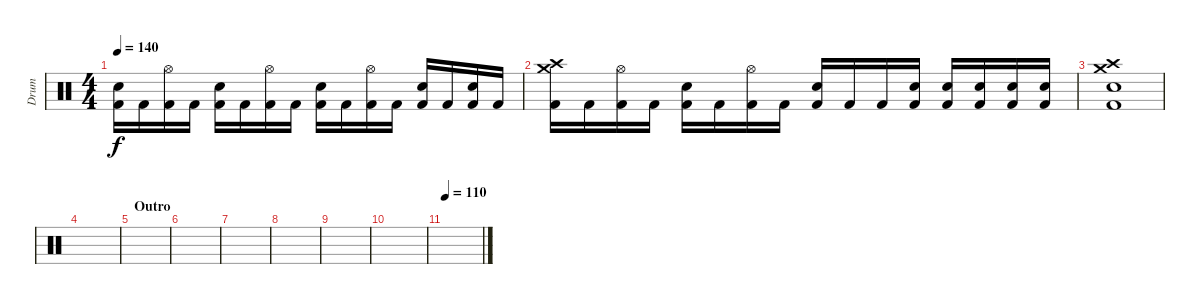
\track ("Drum" "Drum") {instrument percussion}
\staff {score}
\articulation defaults
\ts (4 4)
\tempo 140
\clef neutral
\ks c
("Electric Snare (hit)" "Kick (hit) 2").16{dy f} "Kick (hit) 2".16 ("Hi-Hat (open)" "Kick (hit) 2").16 "Kick (hit) 2".16 ("Electric Snare (hit)" "Kick (hit) 2").16 "Kick (hit) 2".16 ("Hi-Hat (open)" "Kick (hit) 2").16 "Kick (hit) 2".16 ("Electric Snare (hit)" "Kick (hit) 2").16 "Kick (hit) 2".16 ("Hi-Hat (open)" "Kick (hit) 2").16 "Kick (hit) 2".16 ("Electric Snare (hit)" "Kick (hit) 2").16 "Kick (hit) 2".16 ("Electric Snare (hit)" "Kick (hit) 2").16 "Kick (hit) 2".16 |
("Crash medium (hit)" "Crash high (hit)" "Kick (hit) 2").16 "Kick (hit) 2".16 ("Hi-Hat (open)" "Kick (hit) 2").16 "Kick (hit) 2".16 ("Electric Snare (hit)" "Kick (hit) 2").16 "Kick (hit) 2".16 ("Hi-Hat (open)" "Kick (hit) 2").16 "Kick (hit) 2".16 ("Electric Snare (hit)" "Kick (hit) 2").16 "Kick (hit) 2".16 "Kick (hit) 2".16 ("Electric Snare (hit)" "Kick (hit) 2").16 ("Electric Snare (hit)" "Kick (hit) 2").16 ("Electric Snare (hit)" "Kick (hit) 2").16 ("Electric Snare (hit)" "Kick (hit) 2").16 ("Electric Snare (hit)" "Kick (hit) 2").16 |
("Crash medium (hit)" "Crash high (hit)" "Electric Snare (hit)" "Kick (hit) 2").1 |
|
\section ("" "Outro")
|
|
|
|
|
|
\tempo 110
